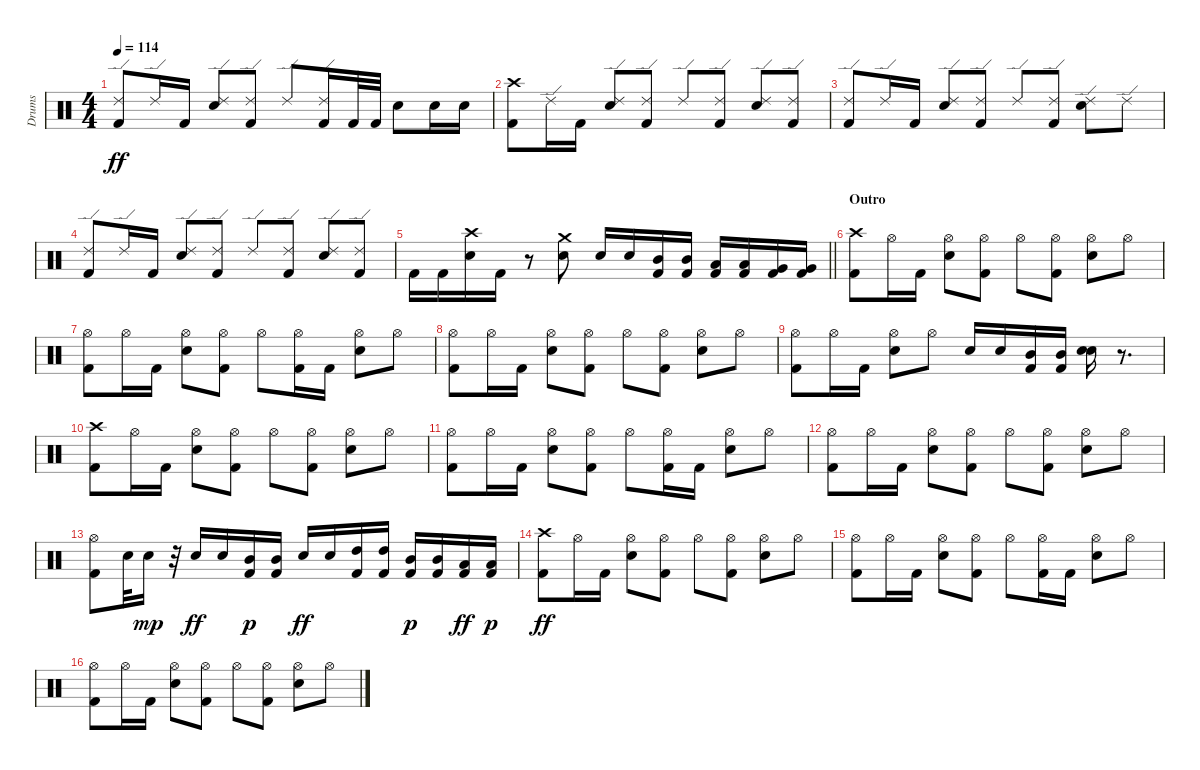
\track ("Drums               " "Drums     ") {instrument percussion}
\staff {score}
\articulation defaults
\ts (4 4)
\tempo 114
\clef neutral
\ks c
("Kick (hit) 2" "Ride (edge) 2").8{dy ff} "Ride (edge) 2".16 "Kick (hit) 2".16 ("Electric Snare (hit)" "Ride (edge) 2").8 ("Kick (hit) 2" "Ride (edge) 2").8 "Ride (edge) 2".8 ("Kick (hit) 2" "Ride (edge) 2").16 "Kick (hit) 2".32 "Kick (hit) 2".32 "Electric Snare (hit)".8 "Electric Snare (hit)".16 "Electric Snare (hit)".16 |
("Kick (hit) 2" "Crash high (hit)").8 "Ride (edge) 2".16 "Kick (hit) 2".16 ("Electric Snare (hit)" "Ride (edge) 2").8 ("Kick (hit) 2" "Ride (edge) 2").8 "Ride (edge) 2".8 ("Kick (hit) 2" "Ride (edge) 2").8 ("Ride (edge) 2" "Electric Snare (hit)").8 ("Kick (hit) 2" "Ride (edge) 2").8 |
("Kick (hit) 2" "Ride (edge) 2").8 "Ride (edge) 2".16 "Kick (hit) 2".16 ("Electric Snare (hit)" "Ride (edge) 2").8 ("Kick (hit) 2" "Ride (edge) 2").8 "Ride (edge) 2".8 ("Ride (edge) 2" "Kick (hit) 2").8 ("Ride (edge) 2" "Electric Snare (hit)").8 "Ride (edge) 2".8 |
("Kick (hit) 2" "Ride (edge) 2").8 "Ride (edge) 2".16 "Kick (hit) 2".16 ("Electric Snare (hit)" "Ride (edge) 2").8 ("Kick (hit) 2" "Ride (edge) 2").8 "Ride (edge) 2".8 ("Kick (hit) 2" "Ride (edge) 2").8 ("Ride (edge) 2" "Electric Snare (hit)").8 ("Kick (hit) 2" "Ride (edge) 2").8 |
\barLineRight lightlight "Kick (hit) 2".16 "Kick (hit) 2".16
("Crash high (hit)" "Electric Snare (hit)").16 "Kick (hit) 2".16 r.8 ("Crash medium (hit)" "Electric Snare (hit)").8 "Electric Snare (hit)".16 "Electric Snare (hit)".16 ("Kick (hit) 2" "Mid Tom (hit)").16 ("Kick (hit) 2" "Mid Tom (hit)").16 ("Kick (hit) 2" "Low Tom (hit)").16 ("Kick (hit) 2" "Low Tom (hit)").16 ("Kick (hit) 2" "Very Low Tom (hit)").16 ("Kick (hit) 2" "Very Low Tom (hit)").16 |
\section ("" "Outro")
("Kick (hit) 2" "Crash high (hit)").8 "Hi-Hat (open)".16 "Kick (hit) 2".16 ("Hi-Hat (open)" "Electric Snare (hit)").8 ("Kick (hit) 2" "Hi-Hat (open)").8 "Hi-Hat (open)".8 ("Kick (hit) 2" "Hi-Hat (open)").8 ("Hi-Hat (open)" "Electric Snare (hit)").8 "Hi-Hat (open)".8 |
("Kick (hit) 2" "Hi-Hat (open)").8 "Hi-Hat (open)".16 "Kick (hit) 2".16 ("Hi-Hat (open)" "Electric Snare (hit)").8 ("Kick (hit) 2" "Hi-Hat (open)").8 "Hi-Hat (open)".8 ("Kick (hit) 2" "Hi-Hat (open)").16 "Kick (hit) 2".16 ("Hi-Hat (open)" "Electric Snare (hit)").8 "Hi-Hat (open)".8 |
("Kick (hit) 2" "Hi-Hat (open)").8 "Hi-Hat (open)".16 "Kick (hit) 2".16 ("Hi-Hat (open)" "Electric Snare (hit)").8 ("Kick (hit) 2" "Hi-Hat (open)").8 "Hi-Hat (open)".8 ("Kick (hit) 2" "Hi-Hat (open)").8 ("Hi-Hat (open)" "Electric Snare (hit)").8 "Hi-Hat (open)".8 |
("Kick (hit) 2" "Hi-Hat (open)").8 "Hi-Hat (open)".16 "Kick (hit) 2".16 ("Hi-Hat (open)" "Electric Snare (hit)").8 "Hi-Hat (open)".8 "Electric Snare (hit)".16 "Electric Snare (hit)".16 ("Kick (hit) 2" "Mid Tom (hit)").16 ("Kick (hit) 2" "Mid Tom (hit)").16 ("Metronome (bell)" "Electric Snare (hit)").16 r.8{d} |
("Crash high (hit)" "Kick (hit) 2").8 "Hi-Hat (open)".16 "Kick (hit) 2".16 ("Electric Snare (hit)" "Hi-Hat (open)").8 ("Hi-Hat (open)" "Kick (hit) 2").8 "Hi-Hat (open)".8 ("Kick (hit) 2" "Hi-Hat (open)").8 ("Hi-Hat (open)" "Electric Snare (hit)").8 "Hi-Hat (open)".8 |
("Hi-Hat (open)" "Kick (hit) 2").8 "Hi-Hat (open)".16 "Kick (hit) 2".16 ("Electric Snare (hit)" "Hi-Hat (open)").8 ("Hi-Hat (open)" "Kick (hit) 2").8 "Hi-Hat (open)".8 ("Kick (hit) 2" "Hi-Hat (open)").16 "Kick (hit) 2".16 ("Electric Snare (hit)" "Hi-Hat (open)").8 "Hi-Hat (open)".8 |
("Hi-Hat (open)" "Kick (hit) 2").8 "Hi-Hat (open)".16 "Kick (hit) 2".16 ("Electric Snare (hit)" "Hi-Hat (open)").8 ("Hi-Hat (open)" "Kick (hit) 2").8 "Hi-Hat (open)".8 ("Kick (hit) 2" "Hi-Hat (open)").8 ("Hi-Hat (open)" "Electric Snare (hit)").8 "Hi-Hat (open)".8 |
("Hi-Hat (open)" "Kick (hit) 2").8 "Electric Snare (hit)".32 "Metronome (bell)".16{dy mp} r.32 "Electric Snare (hit)".16{dy ff} "Electric Snare (hit)".16 ("Mid Tom (hit)" "Kick (hit) 2").16{dy p} ("Mid Tom (hit)" "Kick (hit) 2").16 "Electric Snare (hit)".16{dy ff} "Electric Snare (hit)".16 ("Kick (hit) 2" "High Tom (hit)").16 ("Kick (hit) 2" "High Tom (hit)").16 ("Mid Tom (hit)" "Kick (hit) 2").16{dy p} ("Mid Tom (hit)" "Kick (hit) 2").16 ("Kick (hit) 2" "Low Tom (hit)").16{dy ff} ("Low Tom (hit)" "Kick (hit) 2").16{dy p} |
("Crash high (hit)" "Kick (hit) 2").8{dy ff} "Hi-Hat (open)".16 "Kick (hit) 2".16 ("Electric Snare (hit)" "Hi-Hat (open)").8 ("Hi-Hat (open)" "Kick (hit) 2").8 "Hi-Hat (open)".8 ("Kick (hit) 2" "Hi-Hat (open)").8 ("Hi-Hat (open)" "Electric Snare (hit)").8 "Hi-Hat (open)".8 |
("Hi-Hat (open)" "Kick (hit) 2").8 "Hi-Hat (open)".16 "Kick (hit) 2".16 ("Electric Snare (hit)" "Hi-Hat (open)").8 ("Hi-Hat (open)" "Kick (hit) 2").8 "Hi-Hat (open)".8 ("Kick (hit) 2" "Hi-Hat (open)").16 "Kick (hit) 2".16 ("Electric Snare (hit)" "Hi-Hat (open)").8 "Hi-Hat (open)".8 |
("Hi-Hat (open)" "Kick (hit) 2").8 "Hi-Hat (open)".16 "Kick (hit) 2".16 ("Electric Snare (hit)" "Hi-Hat (open)").8 ("Hi-Hat (open)" "Kick (hit) 2").8 "Hi-Hat (open)".8 ("Kick (hit) 2" "Hi-Hat (open)").8 ("Hi-Hat (open)" "Electric Snare (hit)").8 "Hi-Hat (open)".8
